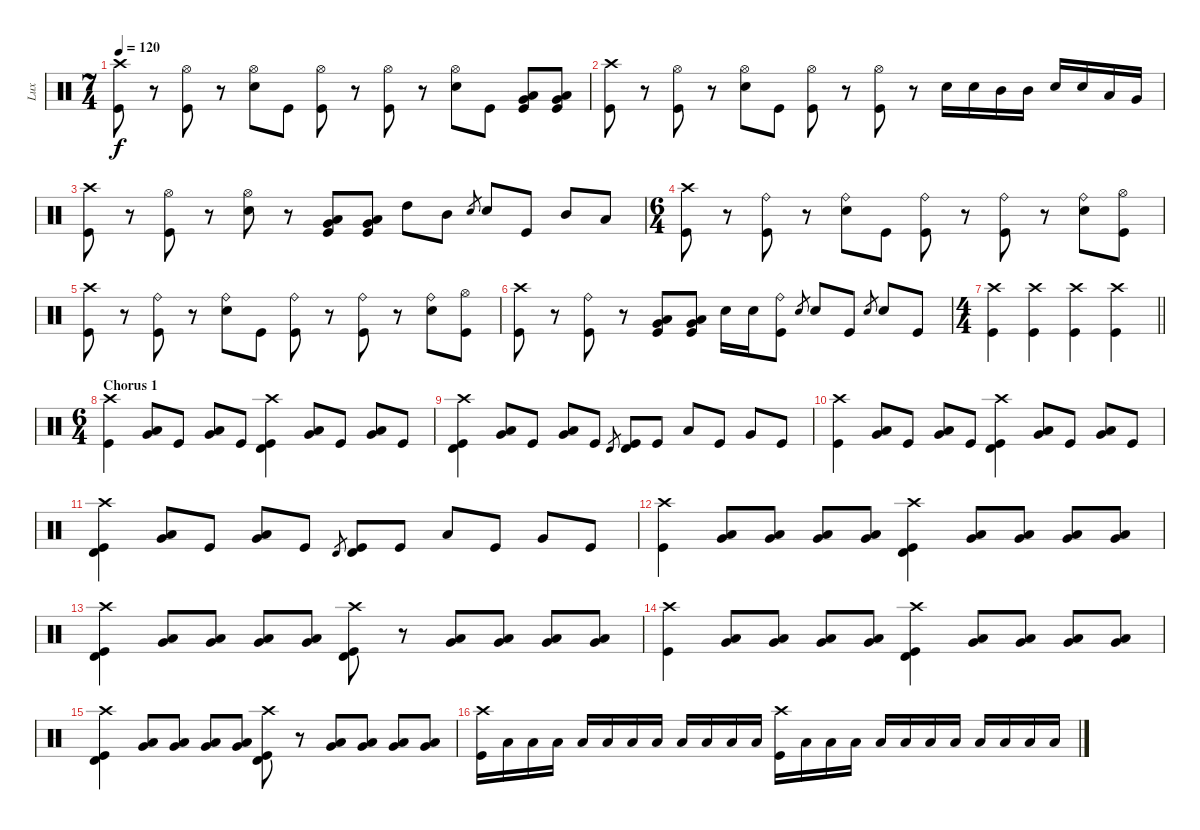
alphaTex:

\track ("Lux" "Lux") {instrument percussion}
\staff {score}
\articulation defaults
\ts (7 4)
\tempo 120
\clef neutral
\ks c
("Crash high (hit)" "Kick (hit)").8{dy f} r.8 ("Hi-Hat (open)" "Kick (hit)").8 r.8 ("Hi-Hat (open)" "Snare (hit) 2").8 "Kick (hit)".8 ("Hi-Hat (open)" "Kick (hit)").8 r.8 ("Hi-Hat (open)" "Kick (hit)").8 r.8 ("Hi-Hat (open)" "Snare (hit) 2").8 "Kick (hit)".8 ("Very Low Tom (hit)" "Low Floor Tom (hit)" "Kick (hit)").8 ("Very Low Tom (hit)" "Low Floor Tom (hit)" "Kick (hit)").8 |
("Crash high (hit)" "Kick (hit)").8 r.8 ("Hi-Hat (open)" "Kick (hit)").8 r.8 ("Hi-Hat (open)" "Snare (hit) 2").8 "Kick (hit)".8 ("Hi-Hat (open)" "Kick (hit)").8 r.8 ("Hi-Hat (open)" "Kick (hit)").8 r.8 "Snare (hit) 2".16 "Snare (hit) 2".16 "Mid Tom (hit)".16 "Mid Tom (hit)".16 "Snare (hit) 2".16 "Snare (hit) 2".16 "Low Tom (hit)".16 "Very Low Tom (hit)".16 |
("Crash high (hit)" "Kick (hit)").8 r.8 ("Hi-Hat (open)" "Kick (hit)").8 r.8 ("Hi-Hat (open)" "Snare (hit) 2").8 r.8 ("Very Low Tom (hit)" "Low Tom (hit)" "Kick (hit)").8 ("Very Low Tom (hit)" "Low Tom (hit)" "Kick (hit)").8 "High Tom (hit)".8 "Mid Tom (hit)".8 "Snare (hit) 2".8{gr} "Snare (hit) 2".8 "Kick (hit)".8 "Mid Tom (hit)".8 "Low Tom (hit)".8 |
\ts (6 4)
("Crash high (hit)" "Kick (hit)").8 r.8 ("Ride (bell)" "Kick (hit)").8 r.8 ("Ride (bell)" "Snare (hit) 2").8 "Kick (hit)".8 ("Ride (bell)" "Kick (hit)").8 r.8 ("Ride (bell)" "Kick (hit)").8 r.8 ("Ride (bell)" "Snare (hit) 2").8 ("Hi-Hat (open)" "Kick (hit)").8 |
("Crash high (hit)" "Kick (hit)").8 r.8 ("Ride (bell)" "Kick (hit)").8 r.8 ("Ride (bell)" "Snare (hit) 2").8 "Kick (hit)".8 ("Ride (bell)" "Kick (hit)").8 r.8 ("Ride (bell)" "Kick (hit)").8 r.8 ("Ride (bell)" "Snare (hit) 2").8 ("Hi-Hat (open)" "Kick (hit)").8 |
("Crash high (hit)" "Kick (hit)").8 r.8 ("Ride (bell)" "Kick (hit)").8 r.8 ("Low Tom (hit)" "Very Low Tom (hit)" "Kick (hit)").8 ("Low Tom (hit)" "Very Low Tom (hit)" "Kick (hit)").8 "Snare (hit) 2".16 "Snare (hit) 2".16 ("Ride (bell)" "Kick (hit)").8 "Snare (hit) 2".8{gr} "Snare (hit) 2".8 "Kick (hit)".8 "Snare (hit) 2".8{gr} "Snare (hit) 2".8 "Kick (hit)".8 |
\ts (4 4)
\barLineRight lightlight
("Crash high (hit)" "Kick (hit)").4 ("Crash high (hit)" "Kick (hit)").4 ("Crash high (hit)" "Kick (hit)").4 ("Crash high (hit)" "Kick (hit)").4 |
\ts (6 4)
\section ("" "Chorus 1")
("Crash high (hit)" "Kick (hit)").4 ("Very Low Tom (hit)" "Low Floor Tom (hit)").8 "Kick (hit)".8 ("Very Low Tom (hit)" "Low Floor Tom (hit)").8 "Kick (hit)".8 ("Crash high (hit)" "Timbale high (hit)" "Kick (hit)").4 ("Very Low Tom (hit)" "Low Floor Tom (hit)").8 "Kick (hit)".8 ("Very Low Tom (hit)" "Low Floor Tom (hit)").8 "Kick (hit)".8 |
("Crash high (hit)" "Timbale high (hit)" "Kick (hit)").4 ("Very Low Tom (hit)" "Low Floor Tom (hit)").8 "Kick (hit)".8 ("Very Low Tom (hit)" "Low Floor Tom (hit)").8 "Kick (hit)".8 "Timbale high (hit)".8{gr} ("Timbale high (hit)" "Kick (hit)").8 "Kick (hit)".8 "Low Tom (hit)".8 "Kick (hit)".8 "Very Low Tom (hit)".8 "Kick (hit)".8 |
("Crash high (hit)" "Kick (hit)").4 ("Very Low Tom (hit)" "Low Floor Tom (hit)").8 "Kick (hit)".8 ("Very Low Tom (hit)" "Low Floor Tom (hit)").8 "Kick (hit)".8 ("Crash high (hit)" "Timbale high (hit)" "Kick (hit)").4 ("Very Low Tom (hit)" "Low Floor Tom (hit)").8 "Kick (hit)".8 ("Very Low Tom (hit)" "Low Floor Tom (hit)").8 "Kick (hit)".8 |
("Crash high (hit)" "Timbale high (hit)" "Kick (hit)").4 ("Very Low Tom (hit)" "Low Floor Tom (hit)").8 "Kick (hit)".8 ("Very Low Tom (hit)" "Low Floor Tom (hit)").8 "Kick (hit)".8 "Timbale high (hit)".8{gr} ("Timbale high (hit)" "Kick (hit)").8 "Kick (hit)".8 "Low Tom (hit)".8 "Kick (hit)".8 "Very Low Tom (hit)".8 "Kick (hit)".8 |
("Crash high (hit)" "Kick (hit)").4 ("Very Low Tom (hit)" "Low Floor Tom (hit)").8 ("Very Low Tom (hit)" "Low Floor Tom (hit)").8 ("Very Low Tom (hit)" "Low Floor Tom (hit)").8 ("Very Low Tom (hit)" "Low Floor Tom (hit)").8 ("Crash high (hit)" "Timbale high (hit)" "Kick (hit)").4 ("Very Low Tom (hit)" "Low Floor Tom (hit)").8 ("Very Low Tom (hit)" "Low Floor Tom (hit)").8 ("Very Low Tom (hit)" "Low Floor Tom (hit)").8 ("Very Low Tom (hit)" "Low Floor Tom (hit)").8 |
("Crash high (hit)" "Timbale high (hit)" "Kick (hit)").4 ("Very Low Tom (hit)" "Low Floor Tom (hit)").8 ("Very Low Tom (hit)" "Low Floor Tom (hit)").8 ("Very Low Tom (hit)" "Low Floor Tom (hit)").8 ("Very Low Tom (hit)" "Low Floor Tom (hit)").8 ("Crash high (hit)" "Timbale high (hit)" "Kick (hit)").8 r.8 ("Very Low Tom (hit)" "Low Floor Tom (hit)").8 ("Very Low Tom (hit)" "Low Floor Tom (hit)").8 ("Very Low Tom (hit)" "Low Floor Tom (hit)").8 ("Very Low Tom (hit)" "Low Floor Tom (hit)").8 |
("Crash high (hit)" "Kick (hit)").4 ("Very Low Tom (hit)" "Low Floor Tom (hit)").8 ("Very Low Tom (hit)" "Low Floor Tom (hit)").8 ("Very Low Tom (hit)" "Low Floor Tom (hit)").8 ("Very Low Tom (hit)" "Low Floor Tom (hit)").8 ("Crash high (hit)" "Timbale high (hit)" "Kick (hit)").4 ("Very Low Tom (hit)" "Low Floor Tom (hit)").8 ("Very Low Tom (hit)" "Low Floor Tom (hit)").8 ("Very Low Tom (hit)" "Low Floor Tom (hit)").8 ("Very Low Tom (hit)" "Low Floor Tom (hit)").8 |
("Crash high (hit)" "Timbale high (hit)" "Kick (hit)").4 ("Very Low Tom (hit)" "Low Floor Tom (hit)").8 ("Very Low Tom (hit)" "Low Floor Tom (hit)").8 ("Very Low Tom (hit)" "Low Floor Tom (hit)").8 ("Very Low Tom (hit)" "Low Floor Tom (hit)").8 ("Crash high (hit)" "Timbale high (hit)" "Kick (hit)").8 r.8 ("Very Low Tom (hit)" "Low Floor Tom (hit)").8 ("Very Low Tom (hit)" "Low Floor Tom (hit)").8 ("Very Low Tom (hit)" "Low Floor Tom (hit)").8 ("Very Low Tom (hit)" "Low Floor Tom (hit)").8 |
("Crash high (hit)" "Kick (hit)").16 "Low Floor Tom (hit)".16 "Low Floor Tom (hit)".16 "Low Floor Tom (hit)".16 "Low Floor Tom (hit)".16 "Low Floor Tom (hit)".16 "Low Floor Tom (hit)".16 "Low Floor Tom (hit)".16 "Low Floor Tom (hit)".16 "Low Floor Tom (hit)".16 "Low Floor Tom (hit)".16 "Low Floor Tom (hit)".16 ("Crash high (hit)" "Kick (hit)").16 "Low Floor Tom (hit)".16 "Low Floor Tom (hit)".16 "Low Floor Tom (hit)".16 "Low Floor Tom (hit)".16 "Low Floor Tom (hit)".16 "Low Floor Tom (hit)".16 "Low Floor Tom (hit)".16 "Low Floor Tom (hit)".16 "Low Floor Tom (hit)".16 "Low Floor Tom (hit)".16 "Low Floor Tom (hit)".16
